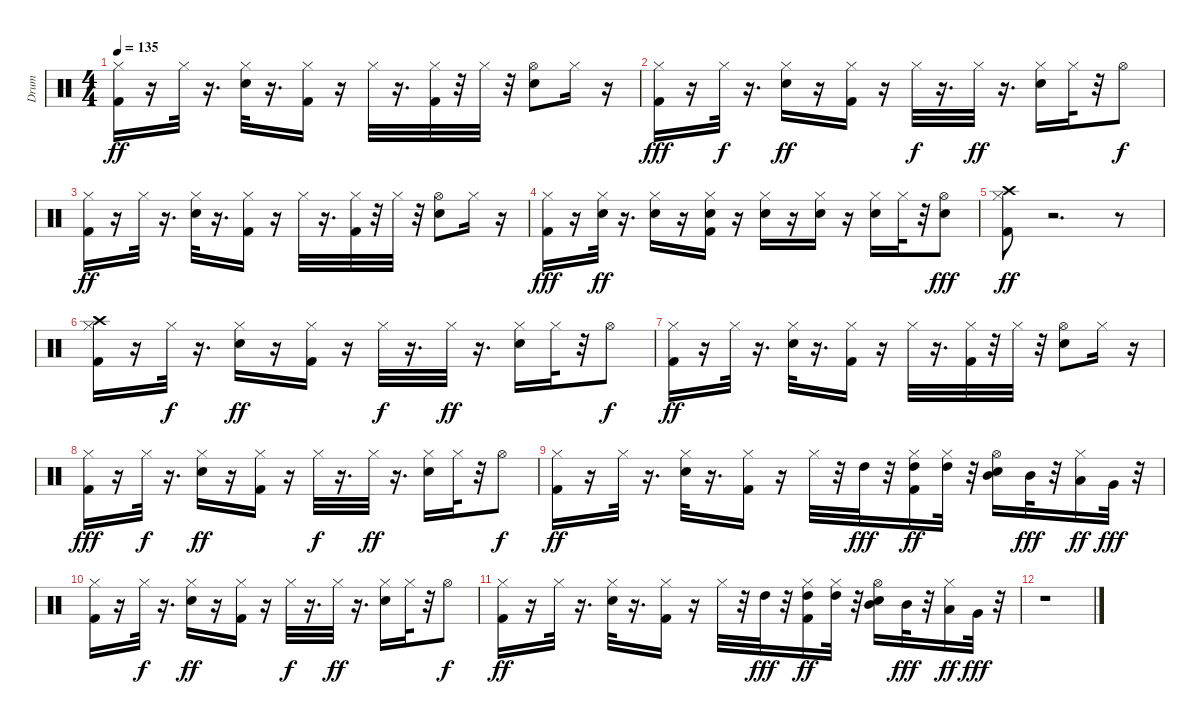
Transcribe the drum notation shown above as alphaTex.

\track ("Drum" "Drum") {instrument percussion}
\staff {score}
\articulation defaults
\ts (4 4)
\tempo 135
\clef neutral
\ks c
("Kick (hit) 2" "Hi-Hat (closed)").16{dy ff} r.16 "Hi-Hat (closed)".32 r.16{d} ("Snare (hit) 2" "Hi-Hat (closed)").32 r.16{d} ("Kick (hit) 2" "Hi-Hat (closed)").16 r.16 "Hi-Hat (closed)".32 r.16{d} ("Kick (hit) 2" "Hi-Hat (closed)").32 r.32 "Hi-Hat (closed)".32 r.32 ("Snare (hit) 2" "Hi-Hat (open)").8 "Hi-Hat (closed)".16 r.16 |
("Kick (hit) 2" "Hi-Hat (closed)").16{dy fff} r.16 "Hi-Hat (closed)".32{dy f} r.16{d} ("Snare (hit) 2" "Hi-Hat (closed)").16{dy ff} r.16 ("Kick (hit) 2" "Hi-Hat (closed)").16 r.16 "Hi-Hat (closed)".32{dy f} r.16{d} "Hi-Hat (closed)".32{dy ff} r.16{d} ("Snare (hit) 2" "Hi-Hat (closed)").16 "Hi-Hat (closed)".32 r.32 "Hi-Hat (open)".8{dy f} |
("Kick (hit) 2" "Hi-Hat (closed)").16{dy ff} r.16 "Hi-Hat (closed)".32 r.16{d} ("Snare (hit) 2" "Hi-Hat (closed)").32 r.16{d} ("Kick (hit) 2" "Hi-Hat (closed)").16 r.16 "Hi-Hat (closed)".32 r.16{d} ("Kick (hit) 2" "Hi-Hat (closed)").32 r.32 "Hi-Hat (closed)".32 r.32 ("Snare (hit) 2" "Hi-Hat (open)").8 "Hi-Hat (closed)".16 r.16 |
("Kick (hit) 2" "Hi-Hat (closed)").16{dy fff} r.16 ("Snare (hit) 2" "Hi-Hat (closed)").32{dy ff} r.16{d} ("Snare (hit) 2" "Hi-Hat (closed)").16 r.16 ("Snare (hit) 2" "Kick (hit) 2" "Hi-Hat (closed)").16 r.16 ("Snare (hit) 2" "Hi-Hat (closed)").16 r.16 ("Snare (hit) 2" "Hi-Hat (closed)").16 r.16 ("Snare (hit) 2" "Hi-Hat (closed)").16 "Hi-Hat (closed)".32 r.32 ("Snare (hit) 2" "Hi-Hat (open)").8{dy fff} |
("Crash high (hit)" "Kick (hit) 2" "Hi-Hat (closed)").8{dy ff} r.2{d} r.8 |
("Kick (hit) 2" "Hi-Hat (closed)" "Crash high (hit)").16 r.16 "Hi-Hat (closed)".32{dy f} r.16{d} ("Snare (hit) 2" "Hi-Hat (closed)").16{dy ff} r.16 ("Kick (hit) 2" "Hi-Hat (closed)").16 r.16 "Hi-Hat (closed)".32{dy f} r.16{d} "Hi-Hat (closed)".32{dy ff} r.16{d} ("Snare (hit) 2" "Hi-Hat (closed)").16 "Hi-Hat (closed)".32 r.32 "Hi-Hat (open)".8{dy f} |
("Kick (hit) 2" "Hi-Hat (closed)").16{dy ff} r.16 "Hi-Hat (closed)".32 r.16{d} ("Snare (hit) 2" "Hi-Hat (closed)").32 r.16{d} ("Kick (hit) 2" "Hi-Hat (closed)").16 r.16 "Hi-Hat (closed)".32 r.16{d} ("Kick (hit) 2" "Hi-Hat (closed)").32 r.32 "Hi-Hat (closed)".32 r.32 ("Snare (hit) 2" "Hi-Hat (open)").8 "Hi-Hat (closed)".16 r.16 |
("Kick (hit) 2" "Hi-Hat (closed)").16{dy fff} r.16 "Hi-Hat (closed)".32{dy f} r.16{d} ("Snare (hit) 2" "Hi-Hat (closed)").16{dy ff} r.16 ("Kick (hit) 2" "Hi-Hat (closed)").16 r.16 "Hi-Hat (closed)".32{dy f} r.16{d} "Hi-Hat (closed)".32{dy ff} r.16{d} ("Snare (hit) 2" "Hi-Hat (closed)").16 "Hi-Hat (closed)".32 r.32 "Hi-Hat (open)".8{dy f} |
("Kick (hit) 2" "Hi-Hat (closed)").16{dy ff} r.16 "Hi-Hat (closed)".32 r.16{d} ("Snare (hit) 2" "Hi-Hat (closed)").32 r.16{d} ("Kick (hit) 2" "Hi-Hat (closed)").16 r.16 "Hi-Hat (closed)".32 r.32 "High Tom (hit)".32{dy fff} r.32 ("High Tom (hit)" "Kick (hit) 2" "Hi-Hat (closed)").16{dy ff} ("High Tom (hit)" "Hi-Hat (closed)").32 r.32 ("Mid Tom (hit)" "Snare (hit) 2" "Hi-Hat (open)").16 "Mid Tom (hit)".32{dy fff} r.32 ("Low Tom (hit)" "Hi-Hat (closed)").16{dy ff} "Very Low Tom (hit)".32{dy fff} r.32 |
("Kick (hit) 2" "Hi-Hat (closed)").16 r.16 "Hi-Hat (closed)".32{dy f} r.16{d} ("Snare (hit) 2" "Hi-Hat (closed)").16{dy ff} r.16 ("Kick (hit) 2" "Hi-Hat (closed)").16 r.16 "Hi-Hat (closed)".32{dy f} r.16{d} "Hi-Hat (closed)".32{dy ff} r.16{d} ("Snare (hit) 2" "Hi-Hat (closed)").16 "Hi-Hat (closed)".32 r.32 "Hi-Hat (open)".8{dy f} |
("Kick (hit) 2" "Hi-Hat (closed)").16{dy ff} r.16 "Hi-Hat (closed)".32 r.16{d} ("Snare (hit) 2" "Hi-Hat (closed)").32 r.16{d} ("Kick (hit) 2" "Hi-Hat (closed)").16 r.16 "Hi-Hat (closed)".32 r.32 "High Tom (hit)".32{dy fff} r.32 ("High Tom (hit)" "Kick (hit) 2" "Hi-Hat (closed)").16{dy ff} ("High Tom (hit)" "Hi-Hat (closed)").32 r.32 ("Mid Tom (hit)" "Snare (hit) 2" "Hi-Hat (open)").16 "Mid Tom (hit)".32{dy fff} r.32 ("Low Tom (hit)" "Hi-Hat (closed)").16{dy ff} "Very Low Tom (hit)".32{dy fff} r.32 |
r.1
